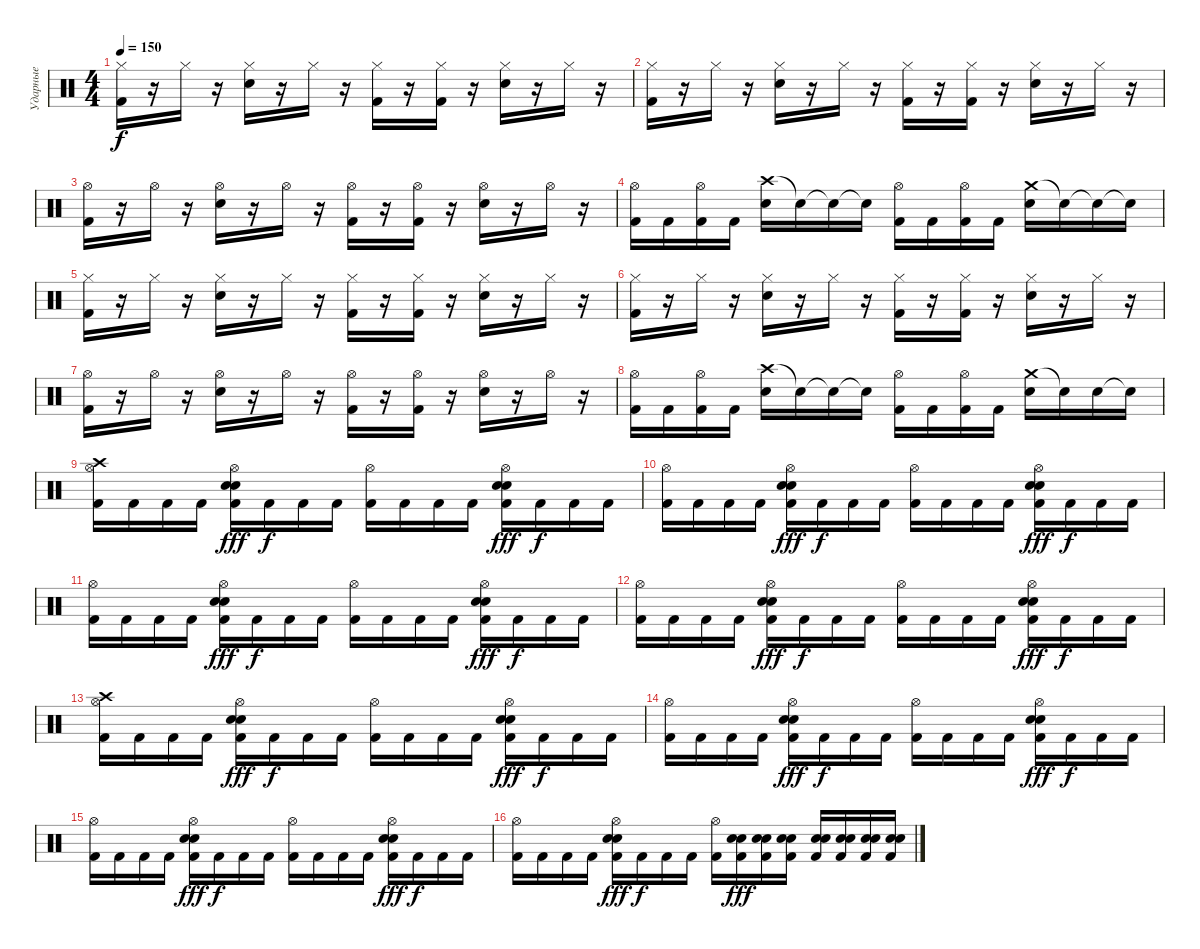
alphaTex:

\track ("Ударные" "Ударные") {instrument percussion}
\staff {score}
\articulation defaults
\ts (4 4)
\tempo 150
\clef neutral
\ks c
("Hi-Hat (closed)" "Kick (hit) 2").16{dy f} r.16 "Hi-Hat (closed)".16 r.16 ("Hi-Hat (closed)" "Snare (hit) 2").16 r.16 "Hi-Hat (closed)".16 r.16 ("Hi-Hat (closed)" "Kick (hit) 2").16 r.16 ("Hi-Hat (closed)" "Kick (hit) 2").16 r.16 ("Hi-Hat (closed)" "Snare (hit) 2").16 r.16 "Hi-Hat (closed)".16 r.16 |
("Hi-Hat (closed)" "Kick (hit) 2").16 r.16 "Hi-Hat (closed)".16 r.16 ("Hi-Hat (closed)" "Snare (hit) 2").16 r.16 "Hi-Hat (closed)".16 r.16 ("Hi-Hat (closed)" "Kick (hit) 2").16 r.16 ("Hi-Hat (closed)" "Kick (hit) 2").16 r.16 ("Hi-Hat (closed)" "Snare (hit) 2").16 r.16 "Hi-Hat (closed)".16 r.16 |
("Hi-Hat (open)" "Kick (hit) 2").16 r.16 "Hi-Hat (open)".16 r.16 ("Hi-Hat (open)" "Snare (hit) 2").16 r.16 "Hi-Hat (open)".16 r.16 ("Hi-Hat (open)" "Kick (hit) 2").16 r.16 ("Hi-Hat (open)" "Kick (hit) 2").16 r.16 ("Hi-Hat (open)" "Snare (hit) 2").16 r.16 "Hi-Hat (open)".16 r.16 |
("Hi-Hat (open)" "Kick (hit) 2").16 "Kick (hit) 2".16 ("Hi-Hat (open)" "Kick (hit) 2").16 "Kick (hit) 2".16 ("Crash high (hit)" "Snare (hit) 2").16 "Snare (hit)"{t}.16 "Snare (hit)"{t}.16 "Snare (hit)"{t}.16 ("Hi-Hat (open)" "Kick (hit) 2").16 "Kick (hit) 2".16 ("Hi-Hat (open)" "Kick (hit) 2").16 "Kick (hit) 2".16 ("Crash medium (hit)" "Snare (hit) 2").16 "Snare (hit)"{t}.16 "Snare (hit)"{t}.16 "Snare (hit)"{t}.16 |
("Hi-Hat (closed)" "Kick (hit) 2").16 r.16 "Hi-Hat (closed)".16 r.16 ("Hi-Hat (closed)" "Snare (hit) 2").16 r.16 "Hi-Hat (closed)".16 r.16 ("Hi-Hat (closed)" "Kick (hit) 2").16 r.16 ("Hi-Hat (closed)" "Kick (hit) 2").16 r.16 ("Hi-Hat (closed)" "Snare (hit) 2").16 r.16 "Hi-Hat (closed)".16 r.16 |
("Hi-Hat (closed)" "Kick (hit) 2").16 r.16 "Hi-Hat (closed)".16 r.16 ("Hi-Hat (closed)" "Snare (hit) 2").16 r.16 "Hi-Hat (closed)".16 r.16 ("Hi-Hat (closed)" "Kick (hit) 2").16 r.16 ("Hi-Hat (closed)" "Kick (hit) 2").16 r.16 ("Hi-Hat (closed)" "Snare (hit) 2").16 r.16 "Hi-Hat (closed)".16 r.16 |
("Hi-Hat (open)" "Kick (hit) 2").16 r.16 "Hi-Hat (open)".16 r.16 ("Hi-Hat (open)" "Snare (hit) 2").16 r.16 "Hi-Hat (open)".16 r.16 ("Hi-Hat (open)" "Kick (hit) 2").16 r.16 ("Hi-Hat (open)" "Kick (hit) 2").16 r.16 ("Hi-Hat (open)" "Snare (hit) 2").16 r.16 "Hi-Hat (open)".16 r.16 |
("Hi-Hat (open)" "Kick (hit) 2").16 "Kick (hit) 2".16 ("Hi-Hat (open)" "Kick (hit) 2").16 "Kick (hit) 2".16 ("Crash high (hit)" "Snare (hit) 2").16 "Snare (hit)"{t}.16 "Snare (hit)"{t}.16 "Snare (hit)"{t}.16 ("Hi-Hat (open)" "Kick (hit) 2").16 "Kick (hit) 2".16 ("Hi-Hat (open)" "Kick (hit) 2").16 "Kick (hit) 2".16 ("Crash medium (hit)" "Snare (hit) 2").16 "Snare (hit)"{t}.16 "Snare (hit) 2".16 "Snare (hit)"{t}.16 |
("Crash high (hit)" "Hi-Hat (open)" "Kick (hit) 2").16 "Kick (hit) 2".16 "Kick (hit) 2".16 "Kick (hit) 2".16 ("Hi-Hat (open)" "Snare (hit) 2" "Snare (hit) 2" "Kick (hit) 2").16{dy fff} "Kick (hit) 2".16{dy f} "Kick (hit) 2".16 "Kick (hit) 2".16 ("Hi-Hat (open)" "Kick (hit) 2").16 "Kick (hit) 2".16 "Kick (hit) 2".16 "Kick (hit) 2".16 ("Hi-Hat (open)" "Snare (hit) 2" "Snare (hit) 2" "Kick (hit) 2").16{dy fff} "Kick (hit) 2".16{dy f} "Kick (hit) 2".16 "Kick (hit) 2".16 |
("Hi-Hat (open)" "Kick (hit) 2").16 "Kick (hit) 2".16 "Kick (hit) 2".16 "Kick (hit) 2".16 ("Hi-Hat (open)" "Snare (hit) 2" "Snare (hit) 2" "Kick (hit) 2").16{dy fff} "Kick (hit) 2".16{dy f} "Kick (hit) 2".16 "Kick (hit) 2".16 ("Hi-Hat (open)" "Kick (hit) 2").16 "Kick (hit) 2".16 "Kick (hit) 2".16 "Kick (hit) 2".16 ("Hi-Hat (open)" "Snare (hit) 2" "Snare (hit) 2" "Kick (hit) 2").16{dy fff} "Kick (hit) 2".16{dy f} "Kick (hit) 2".16 "Kick (hit) 2".16 |
("Hi-Hat (open)" "Kick (hit) 2").16 "Kick (hit) 2".16 "Kick (hit) 2".16 "Kick (hit) 2".16 ("Hi-Hat (open)" "Snare (hit) 2" "Snare (hit) 2" "Kick (hit) 2").16{dy fff} "Kick (hit) 2".16{dy f} "Kick (hit) 2".16 "Kick (hit) 2".16 ("Hi-Hat (open)" "Kick (hit) 2").16 "Kick (hit) 2".16 "Kick (hit) 2".16 "Kick (hit) 2".16 ("Hi-Hat (open)" "Snare (hit) 2" "Snare (hit) 2" "Kick (hit) 2").16{dy fff} "Kick (hit) 2".16{dy f} "Kick (hit) 2".16 "Kick (hit) 2".16 |
("Hi-Hat (open)" "Kick (hit) 2").16 "Kick (hit) 2".16 "Kick (hit) 2".16 "Kick (hit) 2".16 ("Hi-Hat (open)" "Snare (hit) 2" "Snare (hit) 2" "Kick (hit) 2").16{dy fff} "Kick (hit) 2".16{dy f} "Kick (hit) 2".16 "Kick (hit) 2".16 ("Hi-Hat (open)" "Kick (hit) 2").16 "Kick (hit) 2".16 "Kick (hit) 2".16 "Kick (hit) 2".16 ("Hi-Hat (open)" "Snare (hit) 2" "Snare (hit) 2" "Kick (hit) 2").16{dy fff} "Kick (hit) 2".16{dy f} "Kick (hit) 2".16 "Kick (hit) 2".16 |
("Crash high (hit)" "Hi-Hat (open)" "Kick (hit) 2").16 "Kick (hit) 2".16 "Kick (hit) 2".16 "Kick (hit) 2".16 ("Hi-Hat (open)" "Snare (hit) 2" "Snare (hit) 2" "Kick (hit) 2").16{dy fff} "Kick (hit) 2".16{dy f} "Kick (hit) 2".16 "Kick (hit) 2".16 ("Hi-Hat (open)" "Kick (hit) 2").16 "Kick (hit) 2".16 "Kick (hit) 2".16 "Kick (hit) 2".16 ("Hi-Hat (open)" "Snare (hit) 2" "Snare (hit) 2" "Kick (hit) 2").16{dy fff} "Kick (hit) 2".16{dy f} "Kick (hit) 2".16 "Kick (hit) 2".16 |
("Hi-Hat (open)" "Kick (hit) 2").16 "Kick (hit) 2".16 "Kick (hit) 2".16 "Kick (hit) 2".16 ("Hi-Hat (open)" "Snare (hit) 2" "Snare (hit) 2" "Kick (hit) 2").16{dy fff} "Kick (hit) 2".16{dy f} "Kick (hit) 2".16 "Kick (hit) 2".16 ("Hi-Hat (open)" "Kick (hit) 2").16 "Kick (hit) 2".16 "Kick (hit) 2".16 "Kick (hit) 2".16 ("Hi-Hat (open)" "Snare (hit) 2" "Snare (hit) 2" "Kick (hit) 2").16{dy fff} "Kick (hit) 2".16{dy f} "Kick (hit) 2".16 "Kick (hit) 2".16 |
("Hi-Hat (open)" "Kick (hit) 2").16 "Kick (hit) 2".16 "Kick (hit) 2".16 "Kick (hit) 2".16 ("Hi-Hat (open)" "Snare (hit) 2" "Snare (hit) 2" "Kick (hit) 2").16{dy fff} "Kick (hit) 2".16{dy f} "Kick (hit) 2".16 "Kick (hit) 2".16 ("Hi-Hat (open)" "Kick (hit) 2").16 "Kick (hit) 2".16 "Kick (hit) 2".16 "Kick (hit) 2".16 ("Hi-Hat (open)" "Snare (hit) 2" "Snare (hit) 2" "Kick (hit) 2").16{dy fff} "Kick (hit) 2".16{dy f} "Kick (hit) 2".16 "Kick (hit) 2".16 |
("Hi-Hat (open)" "Kick (hit) 2").16 "Kick (hit) 2".16 "Kick (hit) 2".16 "Kick (hit) 2".16 ("Hi-Hat (open)" "Snare (hit) 2" "Snare (hit) 2" "Kick (hit) 2").16{dy fff} "Kick (hit) 2".16{dy f} "Kick (hit) 2".16 "Kick (hit) 2".16 ("Hi-Hat (open)" "Kick (hit) 2").16 ("Snare (hit) 2" "Snare (hit) 2" "Kick (hit) 2").16{dy fff} ("Snare (hit) 2" "Snare (hit) 2" "Kick (hit) 2").16 ("Snare (hit) 2" "Snare (hit) 2" "Kick (hit) 2").16 ("Snare (hit) 2" "Snare (hit) 2" "Kick (hit) 2").16 ("Snare (hit) 2" "Snare (hit) 2" "Kick (hit) 2").16 ("Snare (hit) 2" "Snare (hit) 2" "Kick (hit) 2").16 ("Snare (hit) 2" "Snare (hit) 2" "Kick (hit) 2").16
